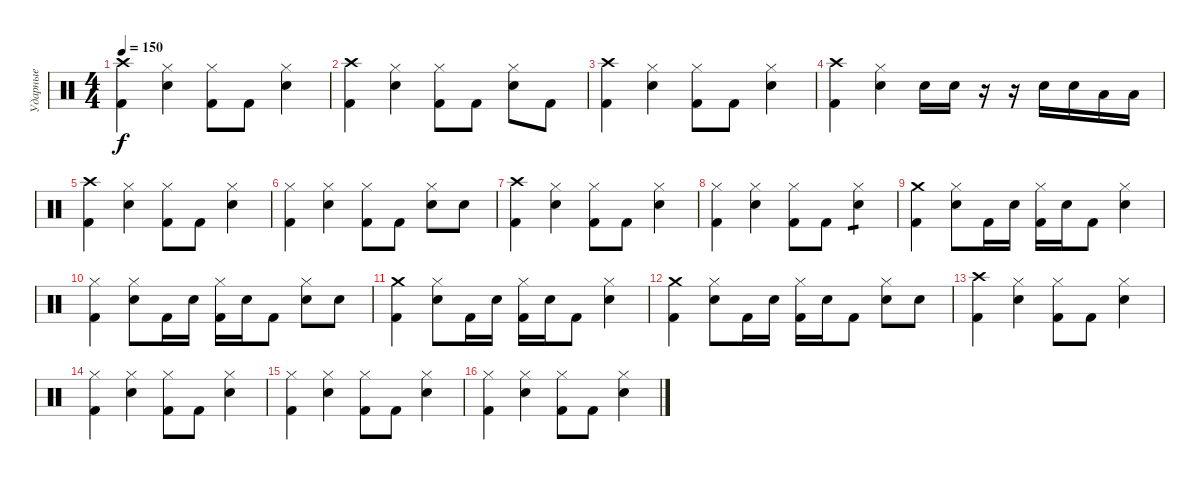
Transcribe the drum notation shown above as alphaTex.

\track ("Ударные" "Ударные") {instrument percussion}
\staff {score}
\articulation defaults
\ts (4 4)
\tempo 150
\clef neutral
\ks c
("Crash high (hit)" "Kick (hit) 2").4{dy f} ("Hi-Hat (closed)" "Electric Snare (hit)").4 ("Hi-Hat (closed)" "Kick (hit) 2").8 "Kick (hit) 2".8 ("Hi-Hat (closed)" "Electric Snare (hit)").4 |
("Crash high (hit)" "Kick (hit) 2").4 ("Hi-Hat (closed)" "Electric Snare (hit)").4 ("Hi-Hat (closed)" "Kick (hit) 2").8 "Kick (hit) 2".8 ("Hi-Hat (closed)" "Electric Snare (hit)").8 "Kick (hit) 2".8 |
("Crash high (hit)" "Kick (hit) 2").4 ("Hi-Hat (closed)" "Electric Snare (hit)").4 ("Hi-Hat (closed)" "Kick (hit) 2").8 "Kick (hit) 2".8 ("Hi-Hat (closed)" "Electric Snare (hit)").4 |
("Crash high (hit)" "Kick (hit) 2").4 ("Hi-Hat (closed)" "Electric Snare (hit)").4 "Electric Snare (hit)".16 "Electric Snare (hit)".16 r.16 r.16 "Electric Snare (hit)".16 "Electric Snare (hit)".16 "Low Tom (hit)".16 "Low Tom (hit)".16 |
("Crash high (hit)" "Kick (hit) 2").4 ("Hi-Hat (closed)" "Electric Snare (hit)").4 ("Hi-Hat (closed)" "Kick (hit) 2").8 "Kick (hit) 2".8 ("Hi-Hat (closed)" "Electric Snare (hit)").4 |
("Hi-Hat (closed)" "Kick (hit) 2").4 ("Hi-Hat (closed)" "Electric Snare (hit)").4 ("Hi-Hat (closed)" "Kick (hit) 2").8 "Kick (hit) 2".8 ("Hi-Hat (closed)" "Electric Snare (hit)").8 "Electric Snare (hit)".8 |
("Crash high (hit)" "Kick (hit) 2").4 ("Hi-Hat (closed)" "Electric Snare (hit)").4 ("Hi-Hat (closed)" "Kick (hit) 2").8 "Kick (hit) 2".8 ("Hi-Hat (closed)" "Electric Snare (hit)").4 |
("Hi-Hat (closed)" "Kick (hit) 2").4 ("Hi-Hat (closed)" "Electric Snare (hit)").4 ("Hi-Hat (closed)" "Kick (hit) 2").8 "Kick (hit) 2".8 ("Hi-Hat (closed)" "Electric Snare (hit)").4{tp 1} |
("Crash medium (hit)" "Kick (hit) 2").4 ("Hi-Hat (closed)" "Electric Snare (hit)").8 "Kick (hit) 2".16 "Electric Snare (hit)".16 ("Hi-Hat (closed)" "Kick (hit) 2").16 "Electric Snare (hit)".16 "Kick (hit) 2".8 ("Hi-Hat (closed)" "Electric Snare (hit)").4 |
("Hi-Hat (closed)" "Kick (hit) 2").4 ("Hi-Hat (closed)" "Electric Snare (hit)").8 "Kick (hit) 2".16 "Electric Snare (hit)".16 ("Hi-Hat (closed)" "Kick (hit) 2").16 "Electric Snare (hit)".16 "Kick (hit) 2".8 ("Hi-Hat (closed)" "Electric Snare (hit)").8 "Electric Snare (hit)".8 |
("Crash medium (hit)" "Kick (hit) 2").4 ("Hi-Hat (closed)" "Electric Snare (hit)").8 "Kick (hit) 2".16 "Electric Snare (hit)".16 ("Hi-Hat (closed)" "Kick (hit) 2").16 "Electric Snare (hit)".16 "Kick (hit) 2".8 ("Hi-Hat (closed)" "Electric Snare (hit)").4 |
("Crash medium (hit)" "Kick (hit) 2").4 ("Hi-Hat (closed)" "Electric Snare (hit)").8 "Kick (hit) 2".16 "Electric Snare (hit)".16 ("Hi-Hat (closed)" "Kick (hit) 2").16 "Electric Snare (hit)".16 "Kick (hit) 2".8 ("Hi-Hat (closed)" "Electric Snare (hit)").8 "Electric Snare (hit)".8 |
("Crash high (hit)" "Kick (hit) 2").4 ("Hi-Hat (closed)" "Electric Snare (hit)").4 ("Hi-Hat (closed)" "Kick (hit) 2").8 "Kick (hit) 2".8 ("Hi-Hat (closed)" "Electric Snare (hit)").4 |
("Hi-Hat (closed)" "Kick (hit) 2").4 ("Hi-Hat (closed)" "Electric Snare (hit)").4 ("Hi-Hat (closed)" "Kick (hit) 2").8 "Kick (hit) 2".8 ("Hi-Hat (closed)" "Electric Snare (hit)").4 |
("Hi-Hat (closed)" "Kick (hit) 2").4 ("Hi-Hat (closed)" "Electric Snare (hit)").4 ("Hi-Hat (closed)" "Kick (hit) 2").8 "Kick (hit) 2".8 ("Hi-Hat (closed)" "Electric Snare (hit)").4 |
("Hi-Hat (closed)" "Kick (hit) 2").4 ("Hi-Hat (closed)" "Electric Snare (hit)").4 ("Hi-Hat (closed)" "Kick (hit) 2").8 "Kick (hit) 2".8 ("Hi-Hat (closed)" "Electric Snare (hit)").4
